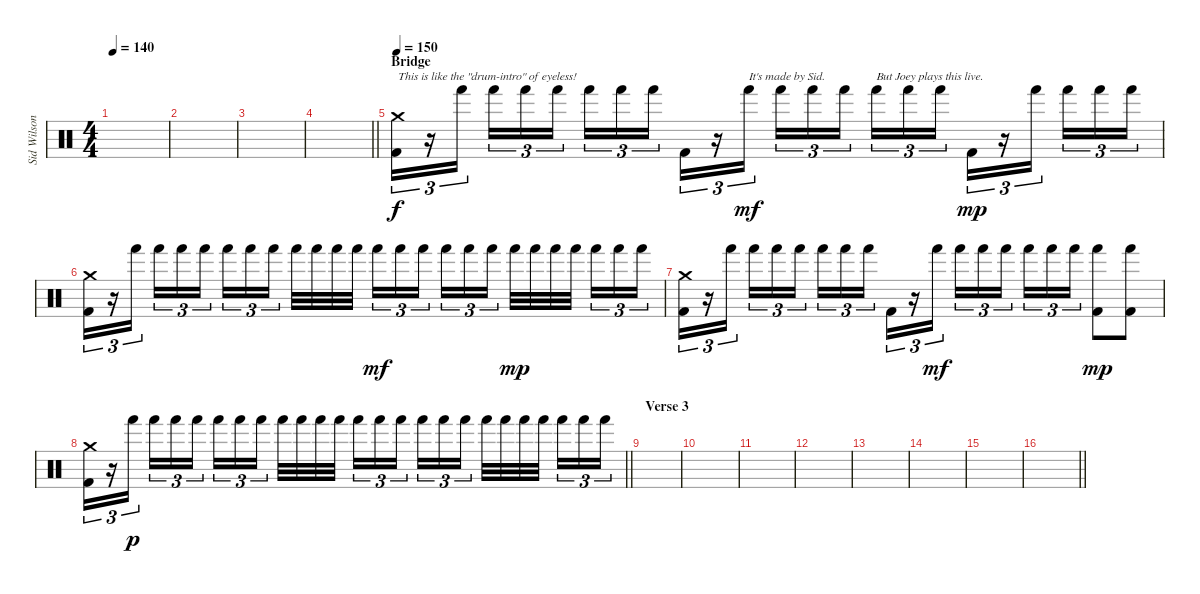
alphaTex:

\track ("Sid Wilson" "Sid Wilson") {instrument percussion}
\staff {score}
\articulation defaults
\ts (4 4)
\tempo 140
\clef neutral
\ks c
|
|
|
\barLineRight lightlight
|
\section ("" "Bridge")
\tempo 150
("Crash medium (hit)" "Kick (hit) 2").16{tu (3 2) txt "This is like the \"drum-intro\" of eyeless!"} r.16{tu (3 2)} "Hand (hit)".16{tu (3 2) beam splitsecondary} "Hand (hit)".16{tu (3 2)} "Hand (hit)".16{tu (3 2)} "Hand (hit)".16{tu (3 2)} "Hand (hit)".16{tu (3 2)} "Hand (hit)".16{tu (3 2)} "Hand (hit)".16{tu (3 2) beam splitsecondary} "Kick (hit) 2".16{tu (3 2)} r.16{tu (3 2)} "Hand (hit)".16{tu (3 2) txt "It's made by Sid." dy mf} "Hand (hit)".16{tu (3 2)} "Hand (hit)".16{tu (3 2)} "Hand (hit)".16{tu (3 2) beam splitsecondary} "Hand (hit)".16{tu (3 2) txt "But Joey plays this live."} "Hand (hit)".16{tu (3 2)} "Hand (hit)".16{tu (3 2)} "Kick (hit) 2".16{tu (3 2) dy mp} r.16{tu (3 2)} "Hand (hit)".16{tu (3 2) beam splitsecondary} "Hand (hit)".16{tu (3 2)} "Hand (hit)".16{tu (3 2)} "Hand (hit)".16{tu (3 2)} |
("Crash medium (hit)" "Kick (hit) 2").16{tu (3 2)} r.16{tu (3 2)} "Hand (hit)".16{tu (3 2) beam splitsecondary} "Hand (hit)".16{tu (3 2)} "Hand (hit)".16{tu (3 2)} "Hand (hit)".16{tu (3 2)} "Hand (hit)".16{tu (3 2)} "Hand (hit)".16{tu (3 2)} "Hand (hit)".16{tu (3 2) beam splitsecondary} "Hand (hit)".32 "Hand (hit)".32 "Hand (hit)".32 "Hand (hit)".32 "Hand (hit)".16{tu (3 2) dy mf} "Hand (hit)".16{tu (3 2)} "Hand (hit)".16{tu (3 2) beam splitsecondary} "Hand (hit)".16{tu (3 2)} "Hand (hit)".16{tu (3 2)} "Hand (hit)".16{tu (3 2)} "Hand (hit)".32{dy mp} "Hand (hit)".32 "Hand (hit)".32 "Hand (hit)".32{beam splitsecondary} "Hand (hit)".16{tu (3 2)} "Hand (hit)".16{tu (3 2)} "Hand (hit)".16{tu (3 2)} |
("Crash medium (hit)" "Kick (hit) 2").16{tu (3 2)} r.16{tu (3 2)} "Hand (hit)".16{tu (3 2) beam splitsecondary} "Hand (hit)".16{tu (3 2)} "Hand (hit)".16{tu (3 2)} "Hand (hit)".16{tu (3 2)} "Hand (hit)".16{tu (3 2)} "Hand (hit)".16{tu (3 2)} "Hand (hit)".16{tu (3 2) beam splitsecondary} "Kick (hit) 2".16{tu (3 2)} r.16{tu (3 2)} "Hand (hit)".16{tu (3 2) dy mf} "Hand (hit)".16{tu (3 2)} "Hand (hit)".16{tu (3 2)} "Hand (hit)".16{tu (3 2) beam splitsecondary} "Hand (hit)".16{tu (3 2)} "Hand (hit)".16{tu (3 2)} "Hand (hit)".16{tu (3 2)} ("Hand (hit)" "Kick (hit) 2").8{dy mp} ("Hand (hit)" "Kick (hit) 2").8 |
\barLineRight lightlight
("Crash medium (hit)" "Kick (hit) 2").16{tu (3 2)} r.16{tu (3 2)} "Hand (hit)".16{tu (3 2) dy p beam splitsecondary} "Hand (hit)".16{tu (3 2)} "Hand (hit)".16{tu (3 2)} "Hand (hit)".16{tu (3 2)} "Hand (hit)".16{tu (3 2)} "Hand (hit)".16{tu (3 2)} "Hand (hit)".16{tu (3 2) beam splitsecondary} "Hand (hit)".32 "Hand (hit)".32 "Hand (hit)".32 "Hand (hit)".32 "Hand (hit)".16{tu (3 2)} "Hand (hit)".16{tu (3 2)} "Hand (hit)".16{tu (3 2) beam splitsecondary} "Hand (hit)".16{tu (3 2)} "Hand (hit)".16{tu (3 2)} "Hand (hit)".16{tu (3 2)} "Hand (hit)".32 "Hand (hit)".32 "Hand (hit)".32 "Hand (hit)".32{beam splitsecondary} "Hand (hit)".16{tu (3 2)} "Hand (hit)".16{tu (3 2)} "Hand (hit)".16{tu (3 2)} |
\section ("" "Verse 3")
|
|
|
|
|
|
|
\barLineRight lightlight
